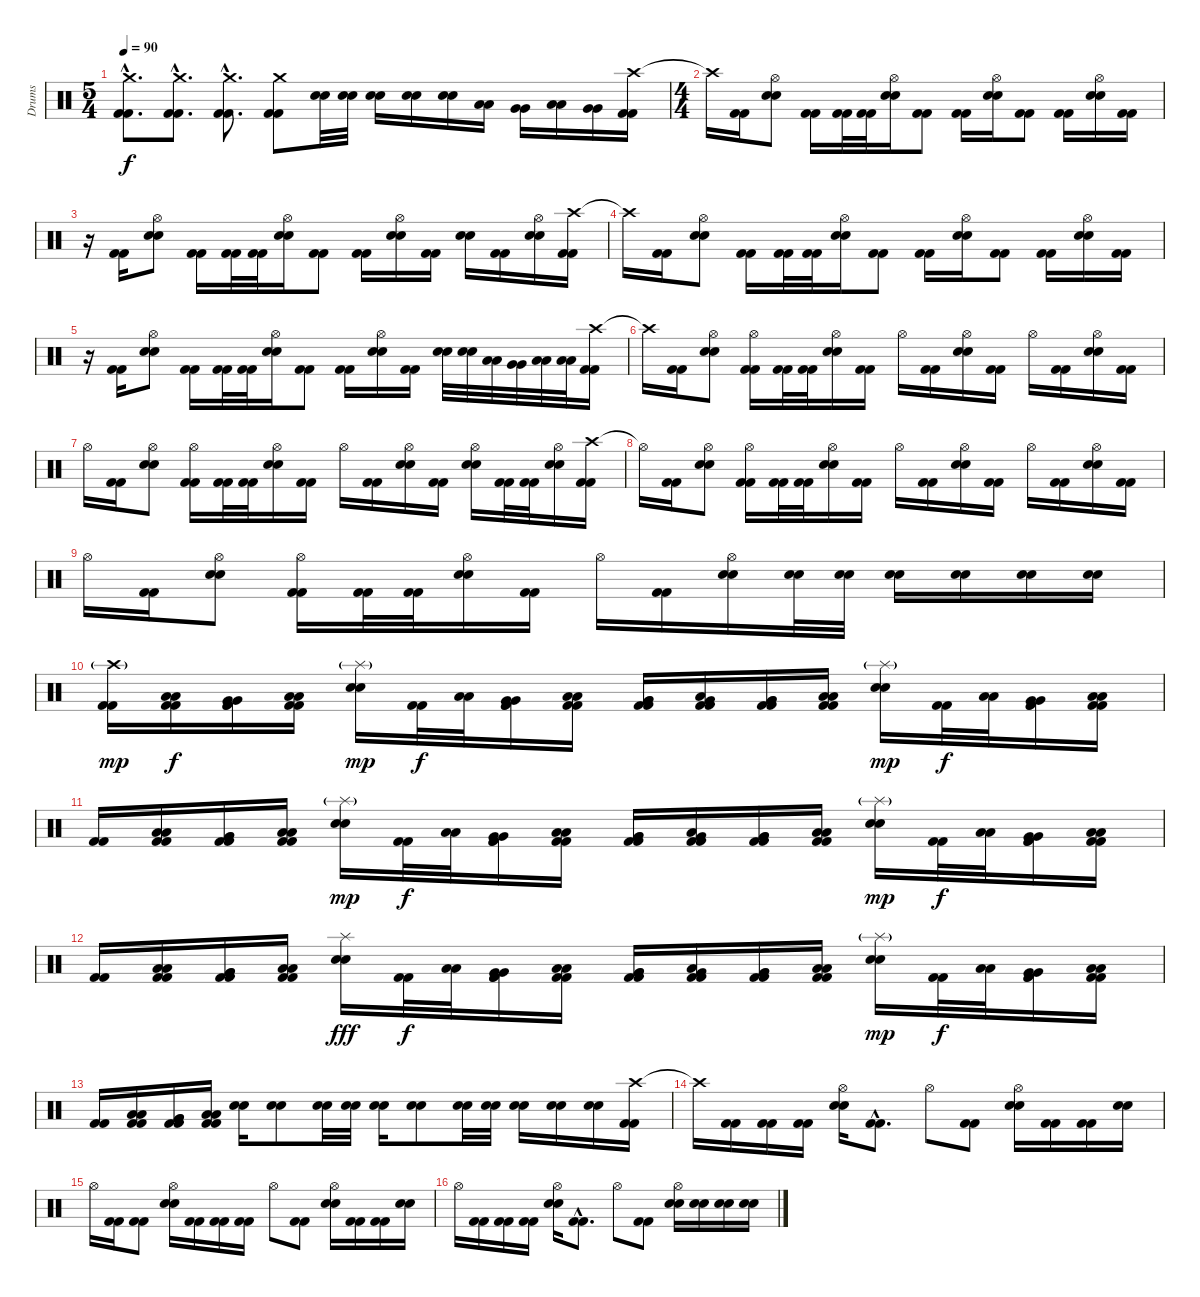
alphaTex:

\track ("Drums" "Drums") {instrument percussion}
\staff {score}
\articulation defaults
\ts (5 4)
\tempo 90
\clef neutral
\ks c
("Crash medium (hit)"{hac} "Kick (hit) 2"{hac} "Kick (hit) 2"{hac}).8{d dy f} ("Crash medium (hit)"{hac} "Kick (hit) 2"{hac} "Kick (hit) 2"{hac}).8{d} ("Crash medium (hit)"{hac} "Kick (hit) 2"{hac} "Kick (hit) 2"{hac}).8{d} ("Crash medium (hit)" "Kick (hit) 2" "Kick (hit) 2").8 ("Electric Snare (hit)" "Snare (hit) 2").32 ("Electric Snare (hit)" "Snare (hit) 2").32 ("Electric Snare (hit)" "Snare (hit) 2").16 ("Electric Snare (hit)" "Snare (hit) 2").16 ("Electric Snare (hit)" "Snare (hit) 2").16 ("Low Tom (hit)" "Low Tom (hit)").16 ("Very Low Tom (hit)" "Very Low Tom (hit)").16 ("Low Floor Tom (hit)" "Low Floor Tom (hit)").16 ("Very Low Tom (hit)" "Very Low Tom (hit)").16 ("Crash high (hit)" "Kick (hit) 2" "Kick (hit) 2").16 |
\ts (4 4)
"Crash high (hit)"{t}.16 ("Kick (hit) 2" "Kick (hit) 2").16 ("Hi-Hat (open)" "Electric Snare (hit)" "Snare (hit) 2").8 ("Kick (hit) 2" "Kick (hit) 2").16 ("Kick (hit) 2" "Kick (hit) 2").32 ("Kick (hit) 2" "Kick (hit) 2").32 ("Hi-Hat (open)" "Electric Snare (hit)" "Snare (hit) 2").16 ("Kick (hit) 2" "Kick (hit) 2").8 ("Kick (hit) 2" "Kick (hit) 2").16 ("Hi-Hat (open)" "Electric Snare (hit)" "Snare (hit) 2").16 ("Kick (hit) 2" "Kick (hit) 2").8 ("Kick (hit) 2" "Kick (hit) 2").16 ("Hi-Hat (open)" "Electric Snare (hit)" "Snare (hit) 2").16 ("Kick (hit) 2" "Kick (hit) 2").16 |
r.16 ("Kick (hit) 2" "Kick (hit) 2").16 ("Hi-Hat (open)" "Electric Snare (hit)" "Snare (hit) 2").8 ("Kick (hit) 2" "Kick (hit) 2").16 ("Kick (hit) 2" "Kick (hit) 2").32 ("Kick (hit) 2" "Kick (hit) 2").32 ("Hi-Hat (open)" "Electric Snare (hit)" "Snare (hit) 2").16 ("Kick (hit) 2" "Kick (hit) 2").8 ("Kick (hit) 2" "Kick (hit) 2").16 ("Hi-Hat (open)" "Electric Snare (hit)" "Snare (hit) 2").16 ("Kick (hit) 2" "Kick (hit) 2").16 ("Electric Snare (hit)" "Snare (hit) 2").16 ("Kick (hit) 2" "Kick (hit) 2").16 ("Hi-Hat (open)" "Electric Snare (hit)" "Snare (hit) 2").16 ("Crash high (hit)" "Kick (hit) 2" "Kick (hit) 2").16 |
"Crash high (hit)"{t}.16 ("Kick (hit) 2" "Kick (hit) 2").16 ("Hi-Hat (open)" "Electric Snare (hit)" "Snare (hit) 2").8 ("Kick (hit) 2" "Kick (hit) 2").16 ("Kick (hit) 2" "Kick (hit) 2").32 ("Kick (hit) 2" "Kick (hit) 2").32 ("Hi-Hat (open)" "Electric Snare (hit)" "Snare (hit) 2").16 ("Kick (hit) 2" "Kick (hit) 2").8 ("Kick (hit) 2" "Kick (hit) 2").16 ("Hi-Hat (open)" "Electric Snare (hit)" "Snare (hit) 2").16 ("Kick (hit) 2" "Kick (hit) 2").8 ("Kick (hit) 2" "Kick (hit) 2").16 ("Hi-Hat (open)" "Electric Snare (hit)" "Snare (hit) 2").16 ("Kick (hit) 2" "Kick (hit) 2").16 |
r.16 ("Kick (hit) 2" "Kick (hit) 2").16 ("Hi-Hat (open)" "Electric Snare (hit)" "Snare (hit) 2").8 ("Kick (hit) 2" "Kick (hit) 2").16 ("Kick (hit) 2" "Kick (hit) 2").32 ("Kick (hit) 2" "Kick (hit) 2").32 ("Hi-Hat (open)" "Electric Snare (hit)" "Snare (hit) 2").16 ("Kick (hit) 2" "Kick (hit) 2").8 ("Kick (hit) 2" "Kick (hit) 2").16 ("Hi-Hat (open)" "Electric Snare (hit)" "Snare (hit) 2").16 ("Kick (hit) 2" "Kick (hit) 2").16 ("Electric Snare (hit)" "Snare (hit) 2").32 ("Electric Snare (hit)" "Snare (hit) 2").32 ("Low Tom (hit)" "Low Tom (hit)").32 ("Very Low Tom (hit)" "Very Low Tom (hit)").32 ("Low Floor Tom (hit)" "Low Floor Tom (hit)").32 ("Low Floor Tom (hit)" "Low Floor Tom (hit)").32 ("Crash high (hit)" "Kick (hit) 2" "Kick (hit) 2").16 |
"Crash high (hit)"{t}.16 ("Kick (hit) 2" "Kick (hit) 2").16 ("Hi-Hat (open)" "Electric Snare (hit)" "Snare (hit) 2").8 ("Hi-Hat (open)" "Kick (hit) 2" "Kick (hit) 2").16 ("Kick (hit) 2" "Kick (hit) 2").32 ("Kick (hit) 2" "Kick (hit) 2").32 ("Hi-Hat (open)" "Electric Snare (hit)" "Snare (hit) 2").16 ("Kick (hit) 2" "Kick (hit) 2").16 "Hi-Hat (open)".16 ("Kick (hit) 2" "Kick (hit) 2").16 ("Hi-Hat (open)" "Electric Snare (hit)" "Snare (hit) 2").16 ("Kick (hit) 2" "Kick (hit) 2").16 "Hi-Hat (open)".16 ("Kick (hit) 2" "Kick (hit) 2").16 ("Hi-Hat (open)" "Electric Snare (hit)" "Snare (hit) 2").16 ("Kick (hit) 2" "Kick (hit) 2").16 |
"Hi-Hat (open)".16 ("Kick (hit) 2" "Kick (hit) 2").16 ("Hi-Hat (open)" "Electric Snare (hit)" "Snare (hit) 2").8 ("Hi-Hat (open)" "Kick (hit) 2" "Kick (hit) 2").16 ("Kick (hit) 2" "Kick (hit) 2").32 ("Kick (hit) 2" "Kick (hit) 2").32 ("Hi-Hat (open)" "Electric Snare (hit)" "Snare (hit) 2").16 ("Kick (hit) 2" "Kick (hit) 2").16 "Hi-Hat (open)".16 ("Kick (hit) 2" "Kick (hit) 2").16 ("Hi-Hat (open)" "Electric Snare (hit)" "Snare (hit) 2").16 ("Kick (hit) 2" "Kick (hit) 2").16 ("Hi-Hat (open)" "Electric Snare (hit)" "Snare (hit) 2").16 ("Kick (hit) 2" "Kick (hit) 2").32 ("Kick (hit) 2" "Kick (hit) 2").32 ("Hi-Hat (open)" "Electric Snare (hit)" "Snare (hit) 2").16 ("Crash high (hit)" "Kick (hit) 2" "Kick (hit) 2").16 |
"Hi-Hat (open)"{t}.16 ("Kick (hit) 2" "Kick (hit) 2").16 ("Hi-Hat (open)" "Electric Snare (hit)" "Snare (hit) 2").8 ("Hi-Hat (open)" "Kick (hit) 2" "Kick (hit) 2").16 ("Kick (hit) 2" "Kick (hit) 2").32 ("Kick (hit) 2" "Kick (hit) 2").32 ("Hi-Hat (open)" "Electric Snare (hit)" "Snare (hit) 2").16 ("Kick (hit) 2" "Kick (hit) 2").16 "Hi-Hat (open)".16 ("Kick (hit) 2" "Kick (hit) 2").16 ("Hi-Hat (open)" "Electric Snare (hit)" "Snare (hit) 2").16 ("Kick (hit) 2" "Kick (hit) 2").16 "Hi-Hat (open)".16 ("Kick (hit) 2" "Kick (hit) 2").16 ("Hi-Hat (open)" "Electric Snare (hit)" "Snare (hit) 2").16 ("Kick (hit) 2" "Kick (hit) 2").16 |
"Hi-Hat (open)".16 ("Kick (hit) 2" "Kick (hit) 2").16 ("Hi-Hat (open)" "Electric Snare (hit)" "Snare (hit) 2").8 ("Hi-Hat (open)" "Kick (hit) 2" "Kick (hit) 2").16 ("Kick (hit) 2" "Kick (hit) 2").32 ("Kick (hit) 2" "Kick (hit) 2").32 ("Hi-Hat (open)" "Electric Snare (hit)" "Snare (hit) 2").16 ("Kick (hit) 2" "Kick (hit) 2").16 "Hi-Hat (open)".16 ("Kick (hit) 2" "Kick (hit) 2").16 ("Hi-Hat (open)" "Electric Snare (hit)" "Snare (hit) 2").16 ("Electric Snare (hit)" "Snare (hit) 2").32 ("Electric Snare (hit)" "Snare (hit) 2").32 ("Electric Snare (hit)" "Snare (hit) 2").16 ("Electric Snare (hit)" "Snare (hit) 2").16 ("Electric Snare (hit)" "Snare (hit) 2").16 ("Electric Snare (hit)" "Snare (hit) 2").16 |
("Crash high (hit)"{g} "Kick (hit) 2" "Kick (hit) 2").16{dy mp} ("Low Tom (hit)" "Low Tom (hit)" "Kick (hit) 2" "Kick (hit) 2").16{dy f} ("Very Low Tom (hit)" "Very Low Tom (hit)" "Kick (hit) 2" "Kick (hit) 2").16 ("Low Floor Tom (hit)" "Low Floor Tom (hit)" "Kick (hit) 2" "Kick (hit) 2").16 ("Splash (hit)"{g} "Electric Snare (hit)" "Snare (hit) 2").16{dy mp} ("Kick (hit) 2" "Kick (hit) 2").32{dy f} ("Low Tom (hit)" "Low Tom (hit)").32 ("Very Low Tom (hit)" "Very Low Tom (hit)" "Kick (hit) 2" "Kick (hit) 2").16 ("Low Floor Tom (hit)" "Low Floor Tom (hit)" "Kick (hit) 2" "Kick (hit) 2").16 ("Very Low Tom (hit)" "Very Low Tom (hit)" "Kick (hit) 2" "Kick (hit) 2").16 ("Very Low Tom (hit)" "Low Tom (hit)" "Kick (hit) 2" "Kick (hit) 2").16 ("Very Low Tom (hit)" "Very Low Tom (hit)" "Kick (hit) 2" "Kick (hit) 2").16 ("Low Floor Tom (hit)" "Low Floor Tom (hit)" "Kick (hit) 2" "Kick (hit) 2").16 ("Splash (hit)"{g} "Electric Snare (hit)" "Snare (hit) 2").16{dy mp} ("Kick (hit) 2" "Kick (hit) 2").32{dy f} ("Low Tom (hit)" "Low Tom (hit)").32 ("Very Low Tom (hit)" "Very Low Tom (hit)" "Kick (hit) 2" "Kick (hit) 2").16 ("Low Floor Tom (hit)" "Low Floor Tom (hit)" "Kick (hit) 2" "Kick (hit) 2").16 |
("Kick (hit) 2" "Kick (hit) 2").16 ("Low Tom (hit)" "Low Tom (hit)" "Kick (hit) 2" "Kick (hit) 2").16 ("Very Low Tom (hit)" "Very Low Tom (hit)" "Kick (hit) 2" "Kick (hit) 2").16 ("Low Floor Tom (hit)" "Low Floor Tom (hit)" "Kick (hit) 2" "Kick (hit) 2").16 ("Splash (hit)"{g} "Electric Snare (hit)" "Snare (hit) 2").16{dy mp} ("Kick (hit) 2" "Kick (hit) 2").32{dy f} ("Low Tom (hit)" "Low Tom (hit)").32 ("Very Low Tom (hit)" "Very Low Tom (hit)" "Kick (hit) 2" "Kick (hit) 2").16 ("Low Floor Tom (hit)" "Low Floor Tom (hit)" "Kick (hit) 2" "Kick (hit) 2").16 ("Very Low Tom (hit)" "Very Low Tom (hit)" "Kick (hit) 2" "Kick (hit) 2").16 ("Very Low Tom (hit)" "Low Tom (hit)" "Kick (hit) 2" "Kick (hit) 2").16 ("Very Low Tom (hit)" "Very Low Tom (hit)" "Kick (hit) 2" "Kick (hit) 2").16 ("Low Floor Tom (hit)" "Low Floor Tom (hit)" "Kick (hit) 2" "Kick (hit) 2").16 ("Splash (hit)"{g} "Electric Snare (hit)" "Snare (hit) 2").16{dy mp} ("Kick (hit) 2" "Kick (hit) 2").32{dy f} ("Low Tom (hit)" "Low Tom (hit)").32 ("Very Low Tom (hit)" "Very Low Tom (hit)" "Kick (hit) 2" "Kick (hit) 2").16 ("Low Floor Tom (hit)" "Low Floor Tom (hit)" "Kick (hit) 2" "Kick (hit) 2").16 |
("Kick (hit) 2" "Kick (hit) 2").16 ("Low Tom (hit)" "Low Tom (hit)" "Kick (hit) 2" "Kick (hit) 2").16 ("Very Low Tom (hit)" "Very Low Tom (hit)" "Kick (hit) 2" "Kick (hit) 2").16 ("Low Floor Tom (hit)" "Low Floor Tom (hit)" "Kick (hit) 2" "Kick (hit) 2").16 ("Splash (hit)" "Electric Snare (hit)" "Snare (hit) 2").16{dy fff} ("Kick (hit) 2" "Kick (hit) 2").32{dy f} ("Low Tom (hit)" "Low Tom (hit)").32 ("Very Low Tom (hit)" "Very Low Tom (hit)" "Kick (hit) 2" "Kick (hit) 2").16 ("Low Floor Tom (hit)" "Low Floor Tom (hit)" "Kick (hit) 2" "Kick (hit) 2").16 ("Very Low Tom (hit)" "Very Low Tom (hit)" "Kick (hit) 2" "Kick (hit) 2").16 ("Very Low Tom (hit)" "Low Tom (hit)" "Kick (hit) 2" "Kick (hit) 2").16 ("Very Low Tom (hit)" "Very Low Tom (hit)" "Kick (hit) 2" "Kick (hit) 2").16 ("Low Floor Tom (hit)" "Low Floor Tom (hit)" "Kick (hit) 2" "Kick (hit) 2").16 ("Splash (hit)"{g} "Electric Snare (hit)" "Snare (hit) 2").16{dy mp} ("Kick (hit) 2" "Kick (hit) 2").32{dy f} ("Low Tom (hit)" "Low Tom (hit)").32 ("Very Low Tom (hit)" "Very Low Tom (hit)" "Kick (hit) 2" "Kick (hit) 2").16 ("Low Floor Tom (hit)" "Low Floor Tom (hit)" "Kick (hit) 2" "Kick (hit) 2").16 |
("Kick (hit) 2" "Kick (hit) 2").16 ("Low Tom (hit)" "Low Tom (hit)" "Kick (hit) 2" "Kick (hit) 2").16 ("Very Low Tom (hit)" "Very Low Tom (hit)" "Kick (hit) 2" "Kick (hit) 2").16 ("Low Floor Tom (hit)" "Low Floor Tom (hit)" "Kick (hit) 2" "Kick (hit) 2").16 ("Electric Snare (hit)" "Snare (hit) 2").16 ("Electric Snare (hit)" "Snare (hit) 2").8 ("Electric Snare (hit)" "Snare (hit) 2").32 ("Electric Snare (hit)" "Snare (hit) 2").32 ("Electric Snare (hit)" "Snare (hit) 2").16 ("Electric Snare (hit)" "Snare (hit) 2").8 ("Electric Snare (hit)" "Snare (hit) 2").32 ("Electric Snare (hit)" "Snare (hit) 2").32 ("Electric Snare (hit)" "Snare (hit) 2").16 ("Electric Snare (hit)" "Snare (hit) 2").16 ("Electric Snare (hit)" "Snare (hit) 2").16 ("Crash high (hit)" "Kick (hit) 2" "Kick (hit) 2").16 |
"Crash high (hit)"{t}.16 ("Kick (hit) 2" "Kick (hit) 2").16 ("Kick (hit) 2" "Kick (hit) 2").16 ("Kick (hit) 2" "Kick (hit) 2").16 ("Hi-Hat (open)" "Electric Snare (hit)" "Snare (hit) 2").16 ("Kick (hit) 2"{hac} "Kick (hit) 2"{hac}).8{d} "Hi-Hat (open)".8 ("Kick (hit) 2" "Kick (hit) 2").8 ("Hi-Hat (open)" "Electric Snare (hit)" "Snare (hit) 2").16 ("Kick (hit) 2" "Kick (hit) 2").16 ("Kick (hit) 2" "Kick (hit) 2").16 ("Electric Snare (hit)" "Snare (hit) 2").16 |
"Hi-Hat (open)".16 ("Kick (hit) 2" "Kick (hit) 2").16 ("Kick (hit) 2" "Kick (hit) 2").8 ("Hi-Hat (open)" "Electric Snare (hit)" "Snare (hit) 2").16 ("Kick (hit) 2" "Kick (hit) 2").16 ("Kick (hit) 2" "Kick (hit) 2").16 ("Kick (hit) 2" "Kick (hit) 2").16 "Hi-Hat (open)".8 ("Kick (hit) 2" "Kick (hit) 2").8 ("Hi-Hat (open)" "Electric Snare (hit)" "Snare (hit) 2").16 ("Kick (hit) 2" "Kick (hit) 2").16 ("Kick (hit) 2" "Kick (hit) 2").16 ("Electric Snare (hit)" "Snare (hit) 2").16 |
"Hi-Hat (open)".16 ("Kick (hit) 2" "Kick (hit) 2").16 ("Kick (hit) 2" "Kick (hit) 2").16 ("Kick (hit) 2" "Kick (hit) 2").16 ("Hi-Hat (open)" "Electric Snare (hit)" "Snare (hit) 2").16 ("Kick (hit) 2"{hac} "Kick (hit) 2"{hac}).8{d} "Hi-Hat (open)".8 ("Kick (hit) 2" "Kick (hit) 2").8 ("Hi-Hat (open)" "Electric Snare (hit)" "Snare (hit) 2").16 ("Electric Snare (hit)" "Snare (hit) 2").16 ("Electric Snare (hit)" "Snare (hit) 2").16 ("Electric Snare (hit)" "Snare (hit) 2").16
